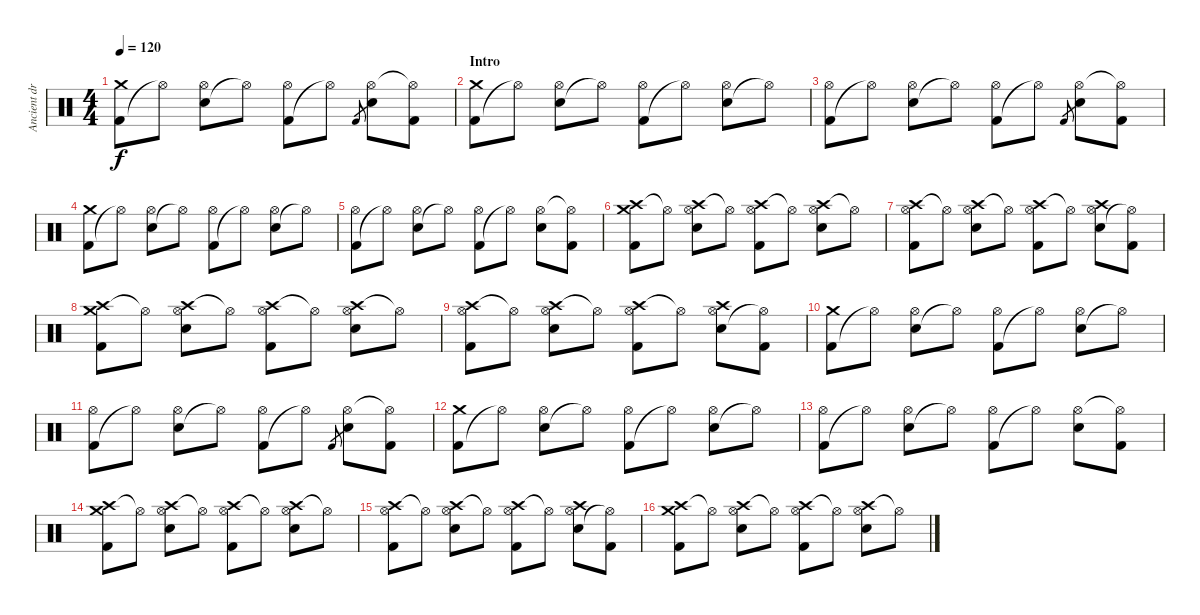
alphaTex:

\track ("Ancient drum type things :S" "Ancient dr") {instrument percussion}
\staff {score}
\articulation defaults
\ts (4 4)
\tempo 120
\clef neutral
\ks c
("Kick (hit) 2" "Crash medium (hit)").8{dy f} "Hi-Hat (open)"{t}.8 ("Electric Snare (hit)" "Hi-Hat (open)").8 "Hi-Hat (open)"{t}.8 ("Kick (hit) 2" "Hi-Hat (open)").8 "Hi-Hat (open)"{t}.8 "Kick (hit) 2".8{gr} ("Electric Snare (hit)" "Hi-Hat (open)").8 ("Kick (hit) 2" "Hi-Hat (open)"{t}).8 |
\section ("" "Intro")
("Kick (hit) 2" "Crash medium (hit)").8 "Hi-Hat (open)"{t}.8 ("Electric Snare (hit)" "Hi-Hat (open)").8 "Hi-Hat (open)"{t}.8 ("Kick (hit) 2" "Hi-Hat (open)").8 "Hi-Hat (open)"{t}.8 ("Electric Snare (hit)" "Hi-Hat (open)").8 "Hi-Hat (open)"{t}.8 |
("Kick (hit) 2" "Hi-Hat (open)").8 "Hi-Hat (open)"{t}.8 ("Electric Snare (hit)" "Hi-Hat (open)").8 "Hi-Hat (open)"{t}.8 ("Kick (hit) 2" "Hi-Hat (open)").8 "Hi-Hat (open)"{t}.8 "Kick (hit) 2".8{gr} ("Electric Snare (hit)" "Hi-Hat (open)").8 ("Kick (hit) 2" "Hi-Hat (open)"{t}).8 |
("Kick (hit) 2" "Crash medium (hit)").8 "Hi-Hat (open)"{t}.8 ("Electric Snare (hit)" "Hi-Hat (open)").8 "Hi-Hat (open)"{t}.8 ("Kick (hit) 2" "Hi-Hat (open)").8 "Hi-Hat (open)"{t}.8 ("Electric Snare (hit)" "Hi-Hat (open)").8 "Hi-Hat (open)"{t}.8 |
("Kick (hit) 2" "Hi-Hat (open)").8 "Hi-Hat (open)"{t}.8 ("Electric Snare (hit)" "Hi-Hat (open)").8 "Hi-Hat (open)"{t}.8 ("Kick (hit) 2" "Hi-Hat (open)").8 "Hi-Hat (open)"{t}.8 ("Electric Snare (hit)" "Hi-Hat (open)").8 ("Kick (hit) 2" "Hi-Hat (open)"{t}).8 |
("Crash high (hit)" "Kick (hit) 2" "Crash medium (hit)").8 "Hi-Hat (open)"{t}.8 ("Crash high (hit)" "Electric Snare (hit)" "Hi-Hat (open)").8 "Hi-Hat (open)"{t}.8 ("Crash high (hit)" "Kick (hit) 2" "Hi-Hat (open)").8 "Hi-Hat (open)"{t}.8 ("Crash high (hit)" "Electric Snare (hit)" "Hi-Hat (open)").8 "Hi-Hat (open)"{t}.8 |
("Crash high (hit)" "Kick (hit) 2" "Hi-Hat (open)").8 "Hi-Hat (open)"{t}.8 ("Crash high (hit)" "Electric Snare (hit)" "Hi-Hat (open)").8 "Hi-Hat (open)"{t}.8 ("Crash high (hit)" "Kick (hit) 2" "Hi-Hat (open)").8 "Hi-Hat (open)"{t}.8 ("Crash high (hit)" "Electric Snare (hit)" "Hi-Hat (open)").8 ("Kick (hit) 2" "Hi-Hat (open)"{t}).8 |
("Crash high (hit)" "Kick (hit) 2" "Crash medium (hit)").8 "Hi-Hat (open)"{t}.8 ("Crash high (hit)" "Electric Snare (hit)" "Hi-Hat (open)").8 "Hi-Hat (open)"{t}.8 ("Crash high (hit)" "Kick (hit) 2" "Hi-Hat (open)").8 "Hi-Hat (open)"{t}.8 ("Crash high (hit)" "Electric Snare (hit)" "Hi-Hat (open)").8 "Hi-Hat (open)"{t}.8 |
("Crash high (hit)" "Kick (hit) 2" "Hi-Hat (open)").8 "Hi-Hat (open)"{t}.8 ("Crash high (hit)" "Electric Snare (hit)" "Hi-Hat (open)").8 "Hi-Hat (open)"{t}.8 ("Crash high (hit)" "Kick (hit) 2" "Hi-Hat (open)").8 "Hi-Hat (open)"{t}.8 ("Crash high (hit)" "Electric Snare (hit)" "Hi-Hat (open)").8 ("Kick (hit) 2" "Hi-Hat (open)"{t}).8 |
("Kick (hit) 2" "Crash medium (hit)").8 "Hi-Hat (open)"{t}.8 ("Electric Snare (hit)" "Hi-Hat (open)").8 "Hi-Hat (open)"{t}.8 ("Kick (hit) 2" "Hi-Hat (open)").8 "Hi-Hat (open)"{t}.8 ("Electric Snare (hit)" "Hi-Hat (open)").8 "Hi-Hat (open)"{t}.8 |
("Kick (hit) 2" "Hi-Hat (open)").8 "Hi-Hat (open)"{t}.8 ("Electric Snare (hit)" "Hi-Hat (open)").8 "Hi-Hat (open)"{t}.8 ("Kick (hit) 2" "Hi-Hat (open)").8 "Hi-Hat (open)"{t}.8 "Kick (hit) 2".8{gr} ("Electric Snare (hit)" "Hi-Hat (open)").8 ("Kick (hit) 2" "Hi-Hat (open)"{t}).8 |
("Kick (hit) 2" "Crash medium (hit)").8 "Hi-Hat (open)"{t}.8 ("Electric Snare (hit)" "Hi-Hat (open)").8 "Hi-Hat (open)"{t}.8 ("Kick (hit) 2" "Hi-Hat (open)").8 "Hi-Hat (open)"{t}.8 ("Electric Snare (hit)" "Hi-Hat (open)").8 "Hi-Hat (open)"{t}.8 |
("Kick (hit) 2" "Hi-Hat (open)").8 "Hi-Hat (open)"{t}.8 ("Electric Snare (hit)" "Hi-Hat (open)").8 "Hi-Hat (open)"{t}.8 ("Kick (hit) 2" "Hi-Hat (open)").8 "Hi-Hat (open)"{t}.8 ("Electric Snare (hit)" "Hi-Hat (open)").8 ("Kick (hit) 2" "Hi-Hat (open)"{t}).8 |
("Crash high (hit)" "Kick (hit) 2" "Crash medium (hit)").8 "Hi-Hat (open)"{t}.8 ("Crash high (hit)" "Electric Snare (hit)" "Hi-Hat (open)").8 "Hi-Hat (open)"{t}.8 ("Crash high (hit)" "Kick (hit) 2" "Hi-Hat (open)").8 "Hi-Hat (open)"{t}.8 ("Crash high (hit)" "Electric Snare (hit)" "Hi-Hat (open)").8 "Hi-Hat (open)"{t}.8 |
("Crash high (hit)" "Kick (hit) 2" "Hi-Hat (open)").8 "Hi-Hat (open)"{t}.8 ("Crash high (hit)" "Electric Snare (hit)" "Hi-Hat (open)").8 "Hi-Hat (open)"{t}.8 ("Crash high (hit)" "Kick (hit) 2" "Hi-Hat (open)").8 "Hi-Hat (open)"{t}.8 ("Crash high (hit)" "Electric Snare (hit)" "Hi-Hat (open)").8 ("Kick (hit) 2" "Hi-Hat (open)"{t}).8 |
("Crash high (hit)" "Kick (hit) 2" "Crash medium (hit)").8 "Hi-Hat (open)"{t}.8 ("Crash high (hit)" "Electric Snare (hit)" "Hi-Hat (open)").8 "Hi-Hat (open)"{t}.8 ("Crash high (hit)" "Kick (hit) 2" "Hi-Hat (open)").8 "Hi-Hat (open)"{t}.8 ("Crash high (hit)" "Electric Snare (hit)" "Hi-Hat (open)").8 "Hi-Hat (open)"{t}.8
